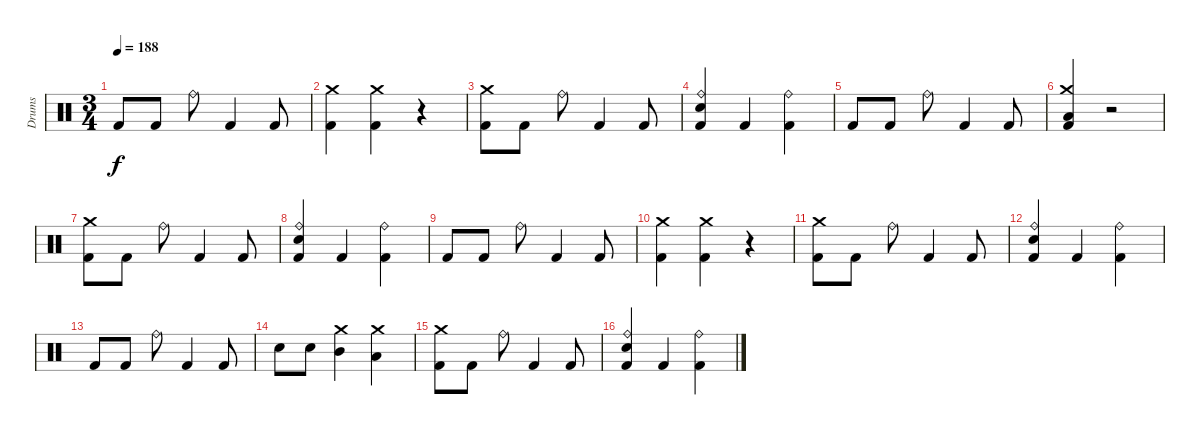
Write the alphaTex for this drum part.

\track ("Drums" "Drums") {instrument percussion}
\staff {score}
\articulation defaults
\ts (3 4)
\tempo 188
\clef neutral
\ks c "Kick (hit) 2".8{dy f} "Kick (hit) 2".8 "Ride (bell)".8 "Kick (hit) 2".4 "Kick (hit) 2".8
|
("Crash medium (hit)" "Kick (hit) 2").4 ("Crash medium (hit)" "Kick (hit) 2").4 r.4 |
("Crash medium (hit)" "Kick (hit) 2").8 "Kick (hit) 2".8 "Ride (bell)".8 "Kick (hit) 2".4 "Kick (hit) 2".8 |
("Electric Snare (hit)" "Ride (bell)" "Kick (hit) 2").4 "Kick (hit) 2".4 ("Ride (bell)" "Kick (hit) 2").4 |
"Kick (hit) 2".8 "Kick (hit) 2".8 "Ride (bell)".8 "Kick (hit) 2".4 "Kick (hit) 2".8 |
("Crash medium (hit)" "Low Tom (hit)" "Kick (hit) 2").4 r.2 |
("Crash medium (hit)" "Kick (hit) 2").8 "Kick (hit) 2".8 "Ride (bell)".8 "Kick (hit) 2".4 "Kick (hit) 2".8 |
("Electric Snare (hit)" "Ride (bell)" "Kick (hit) 2").4 "Kick (hit) 2".4 ("Ride (bell)" "Kick (hit) 2").4 |
"Kick (hit) 2".8 "Kick (hit) 2".8 "Ride (bell)".8 "Kick (hit) 2".4 "Kick (hit) 2".8 |
("Crash medium (hit)" "Kick (hit) 2").4 ("Crash medium (hit)" "Kick (hit) 2").4 r.4 |
("Crash medium (hit)" "Kick (hit) 2").8 "Kick (hit) 2".8 "Ride (bell)".8 "Kick (hit) 2".4 "Kick (hit) 2".8 |
("Electric Snare (hit)" "Ride (bell)" "Kick (hit) 2").4 "Kick (hit) 2".4 ("Ride (bell)" "Kick (hit) 2").4 |
"Kick (hit) 2".8 "Kick (hit) 2".8 "Ride (bell)".8 "Kick (hit) 2".4 "Kick (hit) 2".8 |
"Electric Snare (hit)".8 "Electric Snare (hit)".8 ("Crash medium (hit)" "Mid Tom (hit)").4 ("Crash medium (hit)" "Low Tom (hit)").4 |
("Crash medium (hit)" "Kick (hit) 2").8 "Kick (hit) 2".8 "Ride (bell)".8 "Kick (hit) 2".4 "Kick (hit) 2".8 |
("Electric Snare (hit)" "Ride (bell)" "Kick (hit) 2").4 "Kick (hit) 2".4 ("Ride (bell)" "Kick (hit) 2").4
